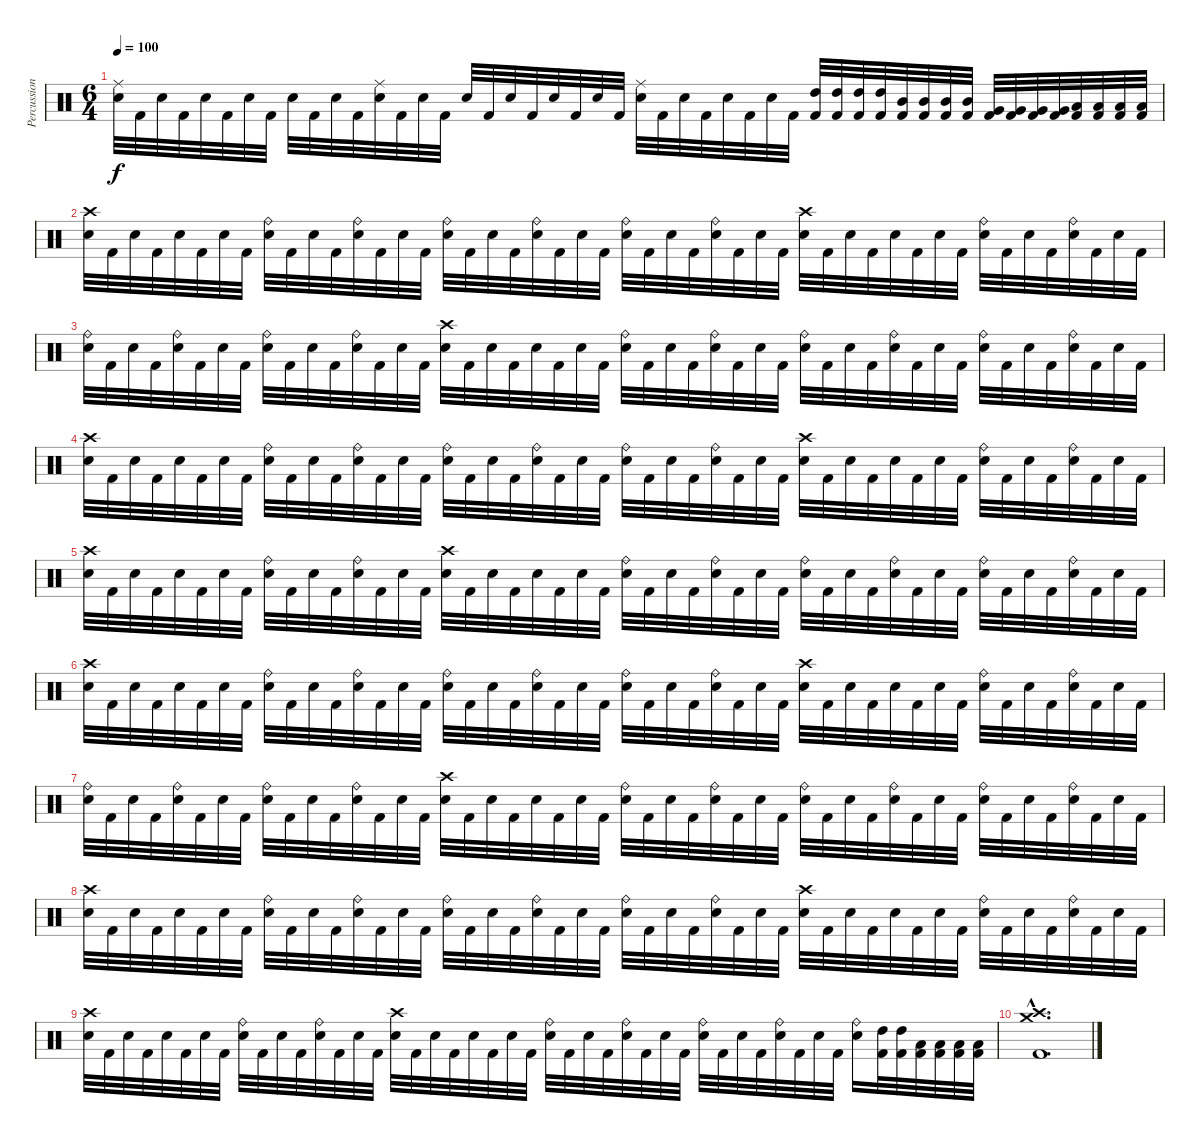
\track ("Percussion" "Percussion") {instrument percussion}
\staff {score}
\articulation defaults
\ts (6 4)
\tempo 100
\clef neutral
\ks c
("Ride (middle)" "Electric Snare (hit)").32{dy f} "Kick (hit) 2".32 "Electric Snare (hit)".32 "Kick (hit) 2".32 "Electric Snare (hit)".32 "Kick (hit) 2".32 "Electric Snare (hit)".32 "Kick (hit) 2".32 "Electric Snare (hit)".32 "Kick (hit) 2".32 "Electric Snare (hit)".32 "Kick (hit) 2".32 ("Ride (middle)" "Electric Snare (hit)").32 "Kick (hit) 2".32 "Electric Snare (hit)".32 "Kick (hit) 2".32 "Electric Snare (hit)".32 "Kick (hit) 2".32 "Electric Snare (hit)".32 "Kick (hit) 2".32 "Electric Snare (hit)".32 "Kick (hit) 2".32 "Electric Snare (hit)".32 "Kick (hit) 2".32 ("Ride (middle)" "Electric Snare (hit)").32 "Kick (hit) 2".32 "Electric Snare (hit)".32 "Kick (hit) 2".32 "Electric Snare (hit)".32 "Kick (hit) 2".32 "Electric Snare (hit)".32 "Kick (hit) 2".32 ("High Tom (hit)" "Kick (hit) 2").32 ("High Tom (hit)" "Kick (hit) 2").32 ("High Tom (hit)" "Kick (hit) 2").32 ("High Tom (hit)" "Kick (hit) 2").32 ("Mid Tom (hit)" "Kick (hit) 2").32 ("Mid Tom (hit)" "Kick (hit) 2").32 ("Mid Tom (hit)" "Kick (hit) 2").32 ("Mid Tom (hit)" "Kick (hit) 2").32 ("Very Low Tom (hit)" "Kick (hit) 2").32 ("Very Low Tom (hit)" "Kick (hit) 2").32 ("Very Low Tom (hit)" "Kick (hit) 2").32 ("Very Low Tom (hit)" "Kick (hit) 2").32 ("Low Tom (hit)" "Kick (hit) 2").32 ("Low Tom (hit)" "Kick (hit) 2").32 ("Low Floor Tom (hit)" "Kick (hit) 2").32 ("Low Floor Tom (hit)" "Kick (hit) 2").32 |
("Crash high (hit)" "Electric Snare (hit)").32 "Kick (hit) 2".32 "Electric Snare (hit)".32 "Kick (hit) 2".32 "Electric Snare (hit)".32 "Kick (hit) 2".32 "Electric Snare (hit)".32 "Kick (hit) 2".32 ("Ride (bell)" "Electric Snare (hit)").32 "Kick (hit) 2".32 "Electric Snare (hit)".32 "Kick (hit) 2".32 ("Ride (bell)" "Electric Snare (hit)").32 "Kick (hit) 2".32 "Electric Snare (hit)".32 "Kick (hit) 2".32 ("Ride (bell)" "Electric Snare (hit)").32 "Kick (hit) 2".32 "Electric Snare (hit)".32 "Kick (hit) 2".32 ("Ride (bell)" "Electric Snare (hit)").32 "Kick (hit) 2".32 "Electric Snare (hit)".32 "Kick (hit) 2".32 ("Ride (bell)" "Electric Snare (hit)").32 "Kick (hit) 2".32 "Electric Snare (hit)".32 "Kick (hit) 2".32 ("Ride (bell)" "Electric Snare (hit)").32 "Kick (hit) 2".32 "Electric Snare (hit)".32 "Kick (hit) 2".32 ("Crash high (hit)" "Electric Snare (hit)").32 "Kick (hit) 2".32 "Electric Snare (hit)".32 "Kick (hit) 2".32 "Electric Snare (hit)".32 "Kick (hit) 2".32 "Electric Snare (hit)".32 "Kick (hit) 2".32 ("Ride (bell)" "Electric Snare (hit)").32 "Kick (hit) 2".32 "Electric Snare (hit)".32 "Kick (hit) 2".32 ("Ride (bell)" "Electric Snare (hit)").32 "Kick (hit) 2".32 "Electric Snare (hit)".32 "Kick (hit) 2".32 |
("Ride (bell)" "Electric Snare (hit)").32 "Kick (hit) 2".32 "Electric Snare (hit)".32 "Kick (hit) 2".32 ("Ride (bell)" "Electric Snare (hit)").32 "Kick (hit) 2".32 "Electric Snare (hit)".32 "Kick (hit) 2".32 ("Ride (bell)" "Electric Snare (hit)").32 "Kick (hit) 2".32 "Electric Snare (hit)".32 "Kick (hit) 2".32 ("Ride (bell)" "Electric Snare (hit)").32 "Kick (hit) 2".32 "Electric Snare (hit)".32 "Kick (hit) 2".32 ("Crash high (hit)" "Electric Snare (hit)").32 "Kick (hit) 2".32 "Electric Snare (hit)".32 "Kick (hit) 2".32 "Electric Snare (hit)".32 "Kick (hit) 2".32 "Electric Snare (hit)".32 "Kick (hit) 2".32 ("Ride (bell)" "Electric Snare (hit)").32 "Kick (hit) 2".32 "Electric Snare (hit)".32 "Kick (hit) 2".32 ("Ride (bell)" "Electric Snare (hit)").32 "Kick (hit) 2".32 "Electric Snare (hit)".32 "Kick (hit) 2".32 ("Ride (bell)" "Electric Snare (hit)").32 "Kick (hit) 2".32 "Electric Snare (hit)".32 "Kick (hit) 2".32 ("Ride (bell)" "Electric Snare (hit)").32 "Kick (hit) 2".32 "Electric Snare (hit)".32 "Kick (hit) 2".32 ("Ride (bell)" "Electric Snare (hit)").32 "Kick (hit) 2".32 "Electric Snare (hit)".32 "Kick (hit) 2".32 ("Ride (bell)" "Electric Snare (hit)").32 "Kick (hit) 2".32 "Electric Snare (hit)".32 "Kick (hit) 2".32 |
("Crash high (hit)" "Electric Snare (hit)").32 "Kick (hit) 2".32 "Electric Snare (hit)".32 "Kick (hit) 2".32 "Electric Snare (hit)".32 "Kick (hit) 2".32 "Electric Snare (hit)".32 "Kick (hit) 2".32 ("Ride (bell)" "Electric Snare (hit)").32 "Kick (hit) 2".32 "Electric Snare (hit)".32 "Kick (hit) 2".32 ("Ride (bell)" "Electric Snare (hit)").32 "Kick (hit) 2".32 "Electric Snare (hit)".32 "Kick (hit) 2".32 ("Ride (bell)" "Electric Snare (hit)").32 "Kick (hit) 2".32 "Electric Snare (hit)".32 "Kick (hit) 2".32 ("Ride (bell)" "Electric Snare (hit)").32 "Kick (hit) 2".32 "Electric Snare (hit)".32 "Kick (hit) 2".32 ("Ride (bell)" "Electric Snare (hit)").32 "Kick (hit) 2".32 "Electric Snare (hit)".32 "Kick (hit) 2".32 ("Ride (bell)" "Electric Snare (hit)").32 "Kick (hit) 2".32 "Electric Snare (hit)".32 "Kick (hit) 2".32 ("Crash high (hit)" "Electric Snare (hit)").32 "Kick (hit) 2".32 "Electric Snare (hit)".32 "Kick (hit) 2".32 "Electric Snare (hit)".32 "Kick (hit) 2".32 "Electric Snare (hit)".32 "Kick (hit) 2".32 ("Ride (bell)" "Electric Snare (hit)").32 "Kick (hit) 2".32 "Electric Snare (hit)".32 "Kick (hit) 2".32 ("Ride (bell)" "Electric Snare (hit)").32 "Kick (hit) 2".32 "Electric Snare (hit)".32 "Kick (hit) 2".32 |
("Crash high (hit)" "Electric Snare (hit)").32 "Kick (hit) 2".32 "Electric Snare (hit)".32 "Kick (hit) 2".32 "Electric Snare (hit)".32 "Kick (hit) 2".32 "Electric Snare (hit)".32 "Kick (hit) 2".32 ("Ride (bell)" "Electric Snare (hit)").32 "Kick (hit) 2".32 "Electric Snare (hit)".32 "Kick (hit) 2".32 ("Ride (bell)" "Electric Snare (hit)").32 "Kick (hit) 2".32 "Electric Snare (hit)".32 "Kick (hit) 2".32 ("Crash high (hit)" "Electric Snare (hit)").32 "Kick (hit) 2".32 "Electric Snare (hit)".32 "Kick (hit) 2".32 "Electric Snare (hit)".32 "Kick (hit) 2".32 "Electric Snare (hit)".32 "Kick (hit) 2".32 ("Ride (bell)" "Electric Snare (hit)").32 "Kick (hit) 2".32 "Electric Snare (hit)".32 "Kick (hit) 2".32 ("Ride (bell)" "Electric Snare (hit)").32 "Kick (hit) 2".32 "Electric Snare (hit)".32 "Kick (hit) 2".32 ("Ride (bell)" "Electric Snare (hit)").32 "Kick (hit) 2".32 "Electric Snare (hit)".32 "Kick (hit) 2".32 ("Ride (bell)" "Electric Snare (hit)").32 "Kick (hit) 2".32 "Electric Snare (hit)".32 "Kick (hit) 2".32 ("Ride (bell)" "Electric Snare (hit)").32 "Kick (hit) 2".32 "Electric Snare (hit)".32 "Kick (hit) 2".32 ("Ride (bell)" "Electric Snare (hit)").32 "Kick (hit) 2".32 "Electric Snare (hit)".32 "Kick (hit) 2".32 |
("Crash high (hit)" "Electric Snare (hit)").32 "Kick (hit) 2".32 "Electric Snare (hit)".32 "Kick (hit) 2".32 "Electric Snare (hit)".32 "Kick (hit) 2".32 "Electric Snare (hit)".32 "Kick (hit) 2".32 ("Ride (bell)" "Electric Snare (hit)").32 "Kick (hit) 2".32 "Electric Snare (hit)".32 "Kick (hit) 2".32 ("Ride (bell)" "Electric Snare (hit)").32 "Kick (hit) 2".32 "Electric Snare (hit)".32 "Kick (hit) 2".32 ("Ride (bell)" "Electric Snare (hit)").32 "Kick (hit) 2".32 "Electric Snare (hit)".32 "Kick (hit) 2".32 ("Ride (bell)" "Electric Snare (hit)").32 "Kick (hit) 2".32 "Electric Snare (hit)".32 "Kick (hit) 2".32 ("Ride (bell)" "Electric Snare (hit)").32 "Kick (hit) 2".32 "Electric Snare (hit)".32 "Kick (hit) 2".32 ("Ride (bell)" "Electric Snare (hit)").32 "Kick (hit) 2".32 "Electric Snare (hit)".32 "Kick (hit) 2".32 ("Crash high (hit)" "Electric Snare (hit)").32 "Kick (hit) 2".32 "Electric Snare (hit)".32 "Kick (hit) 2".32 "Electric Snare (hit)".32 "Kick (hit) 2".32 "Electric Snare (hit)".32 "Kick (hit) 2".32 ("Ride (bell)" "Electric Snare (hit)").32 "Kick (hit) 2".32 "Electric Snare (hit)".32 "Kick (hit) 2".32 ("Ride (bell)" "Electric Snare (hit)").32 "Kick (hit) 2".32 "Electric Snare (hit)".32 "Kick (hit) 2".32 |
("Ride (bell)" "Electric Snare (hit)").32 "Kick (hit) 2".32 "Electric Snare (hit)".32 "Kick (hit) 2".32 ("Ride (bell)" "Electric Snare (hit)").32 "Kick (hit) 2".32 "Electric Snare (hit)".32 "Kick (hit) 2".32 ("Ride (bell)" "Electric Snare (hit)").32 "Kick (hit) 2".32 "Electric Snare (hit)".32 "Kick (hit) 2".32 ("Ride (bell)" "Electric Snare (hit)").32 "Kick (hit) 2".32 "Electric Snare (hit)".32 "Kick (hit) 2".32 ("Crash high (hit)" "Electric Snare (hit)").32 "Kick (hit) 2".32 "Electric Snare (hit)".32 "Kick (hit) 2".32 "Electric Snare (hit)".32 "Kick (hit) 2".32 "Electric Snare (hit)".32 "Kick (hit) 2".32 ("Ride (bell)" "Electric Snare (hit)").32 "Kick (hit) 2".32 "Electric Snare (hit)".32 "Kick (hit) 2".32 ("Ride (bell)" "Electric Snare (hit)").32 "Kick (hit) 2".32 "Electric Snare (hit)".32 "Kick (hit) 2".32 ("Ride (bell)" "Electric Snare (hit)").32 "Kick (hit) 2".32 "Electric Snare (hit)".32 "Kick (hit) 2".32 ("Ride (bell)" "Electric Snare (hit)").32 "Kick (hit) 2".32 "Electric Snare (hit)".32 "Kick (hit) 2".32 ("Ride (bell)" "Electric Snare (hit)").32 "Kick (hit) 2".32 "Electric Snare (hit)".32 "Kick (hit) 2".32 ("Ride (bell)" "Electric Snare (hit)").32 "Kick (hit) 2".32 "Electric Snare (hit)".32 "Kick (hit) 2".32 |
("Crash high (hit)" "Electric Snare (hit)").32 "Kick (hit) 2".32 "Electric Snare (hit)".32 "Kick (hit) 2".32 "Electric Snare (hit)".32 "Kick (hit) 2".32 "Electric Snare (hit)".32 "Kick (hit) 2".32 ("Ride (bell)" "Electric Snare (hit)").32 "Kick (hit) 2".32 "Electric Snare (hit)".32 "Kick (hit) 2".32 ("Ride (bell)" "Electric Snare (hit)").32 "Kick (hit) 2".32 "Electric Snare (hit)".32 "Kick (hit) 2".32 ("Ride (bell)" "Electric Snare (hit)").32 "Kick (hit) 2".32 "Electric Snare (hit)".32 "Kick (hit) 2".32 ("Ride (bell)" "Electric Snare (hit)").32 "Kick (hit) 2".32 "Electric Snare (hit)".32 "Kick (hit) 2".32 ("Ride (bell)" "Electric Snare (hit)").32 "Kick (hit) 2".32 "Electric Snare (hit)".32 "Kick (hit) 2".32 ("Ride (bell)" "Electric Snare (hit)").32 "Kick (hit) 2".32 "Electric Snare (hit)".32 "Kick (hit) 2".32 ("Crash high (hit)" "Electric Snare (hit)").32 "Kick (hit) 2".32 "Electric Snare (hit)".32 "Kick (hit) 2".32 "Electric Snare (hit)".32 "Kick (hit) 2".32 "Electric Snare (hit)".32 "Kick (hit) 2".32 ("Ride (bell)" "Electric Snare (hit)").32 "Kick (hit) 2".32 "Electric Snare (hit)".32 "Kick (hit) 2".32 ("Ride (bell)" "Electric Snare (hit)").32 "Kick (hit) 2".32 "Electric Snare (hit)".32 "Kick (hit) 2".32 |
("Crash high (hit)" "Electric Snare (hit)").32 "Kick (hit) 2".32 "Electric Snare (hit)".32 "Kick (hit) 2".32 "Electric Snare (hit)".32 "Kick (hit) 2".32 "Electric Snare (hit)".32 "Kick (hit) 2".32 ("Ride (bell)" "Electric Snare (hit)").32 "Kick (hit) 2".32 "Electric Snare (hit)".32 "Kick (hit) 2".32 ("Ride (bell)" "Electric Snare (hit)").32 "Kick (hit) 2".32 "Electric Snare (hit)".32 "Kick (hit) 2".32 ("Crash high (hit)" "Electric Snare (hit)").32 "Kick (hit) 2".32 "Electric Snare (hit)".32 "Kick (hit) 2".32 "Electric Snare (hit)".32 "Kick (hit) 2".32 "Electric Snare (hit)".32 "Kick (hit) 2".32 ("Ride (bell)" "Electric Snare (hit)").32 "Kick (hit) 2".32 "Electric Snare (hit)".32 "Kick (hit) 2".32 ("Ride (bell)" "Electric Snare (hit)").32 "Kick (hit) 2".32 "Electric Snare (hit)".32 "Kick (hit) 2".32 ("Ride (bell)" "Electric Snare (hit)").32 "Kick (hit) 2".32 "Electric Snare (hit)".32 "Kick (hit) 2".32 ("Ride (bell)" "Electric Snare (hit)").32 "Kick (hit) 2".32 "Electric Snare (hit)".32 "Kick (hit) 2".32 ("Ride (bell)" "Electric Snare (hit)").16 ("High Tom (hit)" "Kick (hit) 2").32 ("High Tom (hit)" "Kick (hit) 2").32 ("Low Tom (hit)" "Kick (hit) 2").32 ("Low Tom (hit)" "Kick (hit) 2").32 ("Low Floor Tom (hit)" "Kick (hit) 2").32 ("Low Floor Tom (hit)" "Kick (hit) 2").32 |
("Crash high (hit)"{hac} "Crash medium (hit)"{hac} "Kick (hit) 2"{hac}).1{d}
